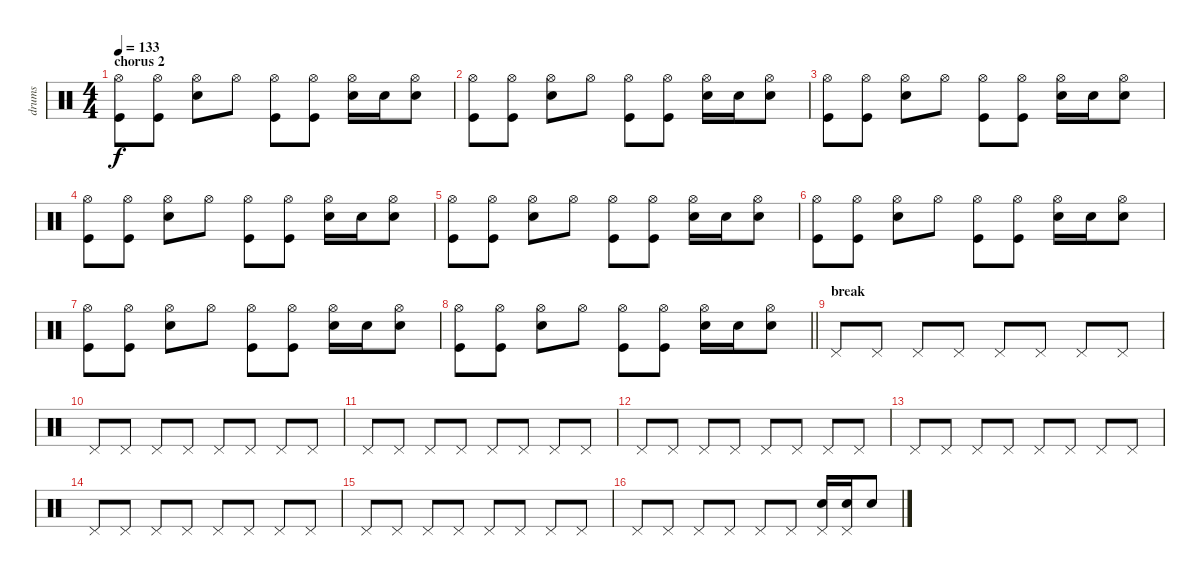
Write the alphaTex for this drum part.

\track ("drums" "drums") {instrument percussion}
\staff {score}
\articulation defaults
\ts (4 4)
\section ("" "chorus 2")
\tempo 133
\clef neutral
\ks c
("Kick (hit)" "Hi-Hat (open)").8{dy f} ("Kick (hit)" "Hi-Hat (open)").8 ("Electric Snare (hit)" "Hi-Hat (open)").8 "Hi-Hat (open)".8 ("Kick (hit)" "Hi-Hat (open)").8 ("Kick (hit)" "Hi-Hat (open)").8 ("Electric Snare (hit)" "Hi-Hat (open)").16 "Electric Snare (hit)".16 ("Electric Snare (hit)" "Hi-Hat (open)").8 |
("Kick (hit)" "Hi-Hat (open)").8 ("Kick (hit)" "Hi-Hat (open)").8 ("Electric Snare (hit)" "Hi-Hat (open)").8 "Hi-Hat (open)".8 ("Kick (hit)" "Hi-Hat (open)").8 ("Kick (hit)" "Hi-Hat (open)").8 ("Electric Snare (hit)" "Hi-Hat (open)").16 "Electric Snare (hit)".16 ("Electric Snare (hit)" "Hi-Hat (open)").8 |
("Kick (hit)" "Hi-Hat (open)").8 ("Kick (hit)" "Hi-Hat (open)").8 ("Electric Snare (hit)" "Hi-Hat (open)").8 "Hi-Hat (open)".8 ("Kick (hit)" "Hi-Hat (open)").8 ("Kick (hit)" "Hi-Hat (open)").8 ("Electric Snare (hit)" "Hi-Hat (open)").16 "Electric Snare (hit)".16 ("Electric Snare (hit)" "Hi-Hat (open)").8 |
("Kick (hit)" "Hi-Hat (open)").8 ("Kick (hit)" "Hi-Hat (open)").8 ("Electric Snare (hit)" "Hi-Hat (open)").8 "Hi-Hat (open)".8 ("Kick (hit)" "Hi-Hat (open)").8 ("Kick (hit)" "Hi-Hat (open)").8 ("Electric Snare (hit)" "Hi-Hat (open)").16 "Electric Snare (hit)".16 ("Electric Snare (hit)" "Hi-Hat (open)").8 |
("Kick (hit)" "Hi-Hat (open)").8 ("Kick (hit)" "Hi-Hat (open)").8 ("Electric Snare (hit)" "Hi-Hat (open)").8 "Hi-Hat (open)".8 ("Kick (hit)" "Hi-Hat (open)").8 ("Kick (hit)" "Hi-Hat (open)").8 ("Electric Snare (hit)" "Hi-Hat (open)").16 "Electric Snare (hit)".16 ("Electric Snare (hit)" "Hi-Hat (open)").8 |
("Kick (hit)" "Hi-Hat (open)").8 ("Kick (hit)" "Hi-Hat (open)").8 ("Electric Snare (hit)" "Hi-Hat (open)").8 "Hi-Hat (open)".8 ("Kick (hit)" "Hi-Hat (open)").8 ("Kick (hit)" "Hi-Hat (open)").8 ("Electric Snare (hit)" "Hi-Hat (open)").16 "Electric Snare (hit)".16 ("Electric Snare (hit)" "Hi-Hat (open)").8 |
("Kick (hit)" "Hi-Hat (open)").8 ("Kick (hit)" "Hi-Hat (open)").8 ("Electric Snare (hit)" "Hi-Hat (open)").8 "Hi-Hat (open)".8 ("Kick (hit)" "Hi-Hat (open)").8 ("Kick (hit)" "Hi-Hat (open)").8 ("Electric Snare (hit)" "Hi-Hat (open)").16 "Electric Snare (hit)".16 ("Electric Snare (hit)" "Hi-Hat (open)").8 |
\barLineRight lightlight
("Kick (hit)" "Hi-Hat (open)").8 ("Kick (hit)" "Hi-Hat (open)").8 ("Electric Snare (hit)" "Hi-Hat (open)").8 "Hi-Hat (open)".8 ("Kick (hit)" "Hi-Hat (open)").8 ("Kick (hit)" "Hi-Hat (open)").8 ("Electric Snare (hit)" "Hi-Hat (open)").16 "Electric Snare (hit)".16 ("Electric Snare (hit)" "Hi-Hat (open)").8 |
\section ("" "break")
"Pedal Hi-Hat (hit)".8 "Pedal Hi-Hat (hit)".8 "Pedal Hi-Hat (hit)".8 "Pedal Hi-Hat (hit)".8 "Pedal Hi-Hat (hit)".8 "Pedal Hi-Hat (hit)".8 "Pedal Hi-Hat (hit)".8 "Pedal Hi-Hat (hit)".8 |
"Pedal Hi-Hat (hit)".8 "Pedal Hi-Hat (hit)".8 "Pedal Hi-Hat (hit)".8 "Pedal Hi-Hat (hit)".8 "Pedal Hi-Hat (hit)".8 "Pedal Hi-Hat (hit)".8 "Pedal Hi-Hat (hit)".8 "Pedal Hi-Hat (hit)".8 |
"Pedal Hi-Hat (hit)".8 "Pedal Hi-Hat (hit)".8 "Pedal Hi-Hat (hit)".8 "Pedal Hi-Hat (hit)".8 "Pedal Hi-Hat (hit)".8 "Pedal Hi-Hat (hit)".8 "Pedal Hi-Hat (hit)".8 "Pedal Hi-Hat (hit)".8 |
"Pedal Hi-Hat (hit)".8 "Pedal Hi-Hat (hit)".8 "Pedal Hi-Hat (hit)".8 "Pedal Hi-Hat (hit)".8 "Pedal Hi-Hat (hit)".8 "Pedal Hi-Hat (hit)".8 "Pedal Hi-Hat (hit)".8 "Pedal Hi-Hat (hit)".8 |
"Pedal Hi-Hat (hit)".8 "Pedal Hi-Hat (hit)".8 "Pedal Hi-Hat (hit)".8 "Pedal Hi-Hat (hit)".8 "Pedal Hi-Hat (hit)".8 "Pedal Hi-Hat (hit)".8 "Pedal Hi-Hat (hit)".8 "Pedal Hi-Hat (hit)".8 |
"Pedal Hi-Hat (hit)".8 "Pedal Hi-Hat (hit)".8 "Pedal Hi-Hat (hit)".8 "Pedal Hi-Hat (hit)".8 "Pedal Hi-Hat (hit)".8 "Pedal Hi-Hat (hit)".8 "Pedal Hi-Hat (hit)".8 "Pedal Hi-Hat (hit)".8 |
"Pedal Hi-Hat (hit)".8 "Pedal Hi-Hat (hit)".8 "Pedal Hi-Hat (hit)".8 "Pedal Hi-Hat (hit)".8 "Pedal Hi-Hat (hit)".8 "Pedal Hi-Hat (hit)".8 "Pedal Hi-Hat (hit)".8 "Pedal Hi-Hat (hit)".8 |
"Pedal Hi-Hat (hit)".8 "Pedal Hi-Hat (hit)".8 "Pedal Hi-Hat (hit)".8 "Pedal Hi-Hat (hit)".8 "Pedal Hi-Hat (hit)".8 "Pedal Hi-Hat (hit)".8 ("Electric Snare (hit)" "Pedal Hi-Hat (hit)").16 ("Electric Snare (hit)" "Pedal Hi-Hat (hit)").16 "Electric Snare (hit)".8
